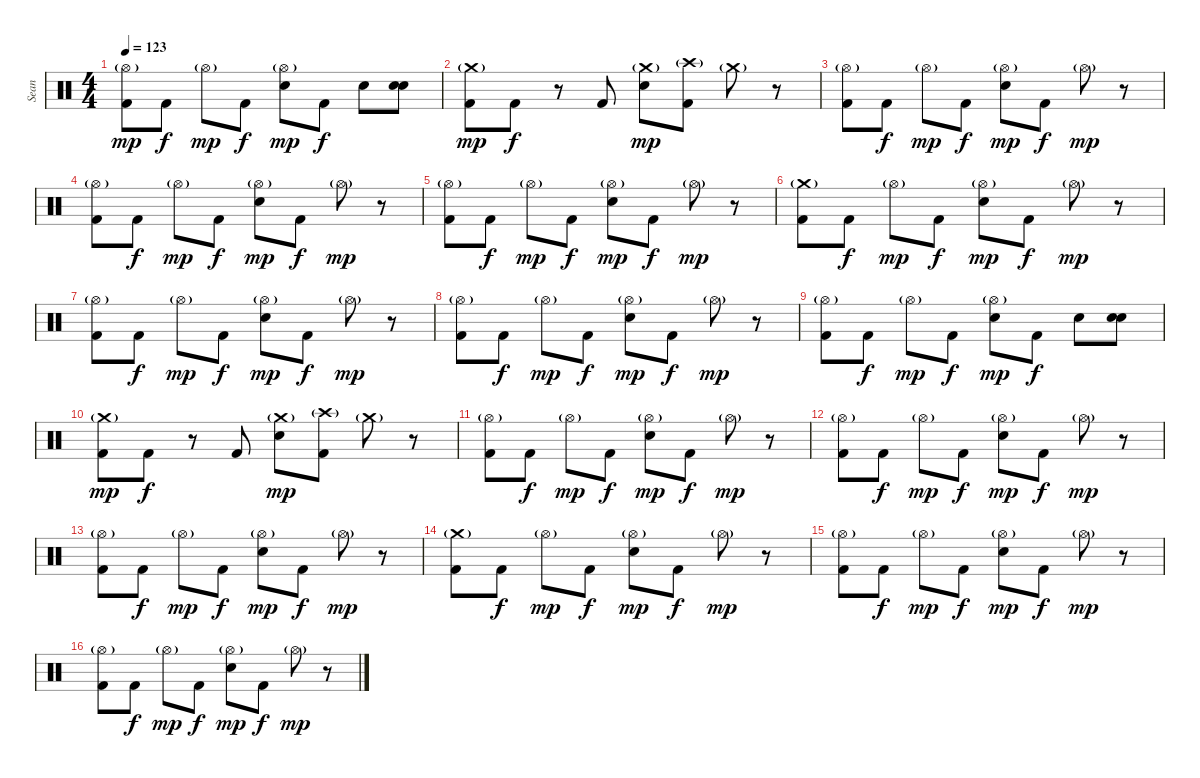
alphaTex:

\track ("Sean" "Sean") {instrument percussion}
\staff {score}
\articulation defaults
\ts (4 4)
\tempo 123
\clef neutral
\ks c
("Hi-Hat (open)"{g} "Kick (hit) 2").8{dy mp} "Kick (hit) 2".8{dy f} "Hi-Hat (open)"{g}.8{dy mp} "Kick (hit) 2".8{dy f} ("Hi-Hat (open)"{g} "Electric Snare (hit)").8{dy mp} "Kick (hit) 2".8{dy f} "Electric Snare (hit)".8 ("Electric Snare (hit)" "Electric Snare (hit)").8{bd 480} |
("Crash medium (hit)"{g} "Kick (hit) 2").8{dy mp} "Kick (hit) 2".8{dy f} r.8 "Kick (hit) 2".8 ("Crash medium (hit)"{g} "Electric Snare (hit)").8{dy mp} ("Crash high (hit)"{g} "Kick (hit) 2").8 "Crash medium (hit)"{g}.8 r.8 |
("Hi-Hat (open)"{g} "Kick (hit) 2").8 "Kick (hit) 2".8{dy f} "Hi-Hat (open)"{g}.8{dy mp} "Kick (hit) 2".8{dy f} ("Hi-Hat (open)"{g} "Electric Snare (hit)").8{dy mp} "Kick (hit) 2".8{dy f} "Hi-Hat (open)"{g}.8{dy mp} r.8 |
("Hi-Hat (open)"{g} "Kick (hit) 2").8 "Kick (hit) 2".8{dy f} "Hi-Hat (open)"{g}.8{dy mp} "Kick (hit) 2".8{dy f} ("Hi-Hat (open)"{g} "Electric Snare (hit)").8{dy mp} "Kick (hit) 2".8{dy f} "Hi-Hat (open)"{g}.8{dy mp} r.8 |
("Hi-Hat (open)"{g} "Kick (hit) 2").8 "Kick (hit) 2".8{dy f} "Hi-Hat (open)"{g}.8{dy mp} "Kick (hit) 2".8{dy f} ("Hi-Hat (open)"{g} "Electric Snare (hit)").8{dy mp} "Kick (hit) 2".8{dy f} "Hi-Hat (open)"{g}.8{dy mp} r.8 |
("Crash medium (hit)"{g} "Kick (hit) 2").8 "Kick (hit) 2".8{dy f} "Hi-Hat (open)"{g}.8{dy mp} "Kick (hit) 2".8{dy f} ("Hi-Hat (open)"{g} "Electric Snare (hit)").8{dy mp} "Kick (hit) 2".8{dy f} "Hi-Hat (open)"{g}.8{dy mp} r.8 |
("Hi-Hat (open)"{g} "Kick (hit) 2").8 "Kick (hit) 2".8{dy f} "Hi-Hat (open)"{g}.8{dy mp} "Kick (hit) 2".8{dy f} ("Hi-Hat (open)"{g} "Electric Snare (hit)").8{dy mp} "Kick (hit) 2".8{dy f} "Hi-Hat (open)"{g}.8{dy mp} r.8 |
("Hi-Hat (open)"{g} "Kick (hit) 2").8 "Kick (hit) 2".8{dy f} "Hi-Hat (open)"{g}.8{dy mp} "Kick (hit) 2".8{dy f} ("Hi-Hat (open)"{g} "Electric Snare (hit)").8{dy mp} "Kick (hit) 2".8{dy f} "Hi-Hat (open)"{g}.8{dy mp} r.8 |
("Hi-Hat (open)"{g} "Kick (hit) 2").8 "Kick (hit) 2".8{dy f} "Hi-Hat (open)"{g}.8{dy mp} "Kick (hit) 2".8{dy f} ("Hi-Hat (open)"{g} "Electric Snare (hit)").8{dy mp} "Kick (hit) 2".8{dy f} "Electric Snare (hit)".8 ("Electric Snare (hit)" "Electric Snare (hit)").8{bd 480} |
("Crash medium (hit)"{g} "Kick (hit) 2").8{dy mp} "Kick (hit) 2".8{dy f} r.8 "Kick (hit) 2".8 ("Crash medium (hit)"{g} "Electric Snare (hit)").8{dy mp} ("Crash high (hit)"{g} "Kick (hit) 2").8 "Crash medium (hit)"{g}.8 r.8 |
("Hi-Hat (open)"{g} "Kick (hit) 2").8 "Kick (hit) 2".8{dy f} "Hi-Hat (open)"{g}.8{dy mp} "Kick (hit) 2".8{dy f} ("Hi-Hat (open)"{g} "Electric Snare (hit)").8{dy mp} "Kick (hit) 2".8{dy f} "Hi-Hat (open)"{g}.8{dy mp} r.8 |
("Hi-Hat (open)"{g} "Kick (hit) 2").8 "Kick (hit) 2".8{dy f} "Hi-Hat (open)"{g}.8{dy mp} "Kick (hit) 2".8{dy f} ("Hi-Hat (open)"{g} "Electric Snare (hit)").8{dy mp} "Kick (hit) 2".8{dy f} "Hi-Hat (open)"{g}.8{dy mp} r.8 |
("Hi-Hat (open)"{g} "Kick (hit) 2").8 "Kick (hit) 2".8{dy f} "Hi-Hat (open)"{g}.8{dy mp} "Kick (hit) 2".8{dy f} ("Hi-Hat (open)"{g} "Electric Snare (hit)").8{dy mp} "Kick (hit) 2".8{dy f} "Hi-Hat (open)"{g}.8{dy mp} r.8 |
("Crash medium (hit)"{g} "Kick (hit) 2").8 "Kick (hit) 2".8{dy f} "Hi-Hat (open)"{g}.8{dy mp} "Kick (hit) 2".8{dy f} ("Hi-Hat (open)"{g} "Electric Snare (hit)").8{dy mp} "Kick (hit) 2".8{dy f} "Hi-Hat (open)"{g}.8{dy mp} r.8 |
("Hi-Hat (open)"{g} "Kick (hit) 2").8 "Kick (hit) 2".8{dy f} "Hi-Hat (open)"{g}.8{dy mp} "Kick (hit) 2".8{dy f} ("Hi-Hat (open)"{g} "Electric Snare (hit)").8{dy mp} "Kick (hit) 2".8{dy f} "Hi-Hat (open)"{g}.8{dy mp} r.8 |
("Hi-Hat (open)"{g} "Kick (hit) 2").8 "Kick (hit) 2".8{dy f} "Hi-Hat (open)"{g}.8{dy mp} "Kick (hit) 2".8{dy f} ("Hi-Hat (open)"{g} "Electric Snare (hit)").8{dy mp} "Kick (hit) 2".8{dy f} "Hi-Hat (open)"{g}.8{dy mp} r.8
